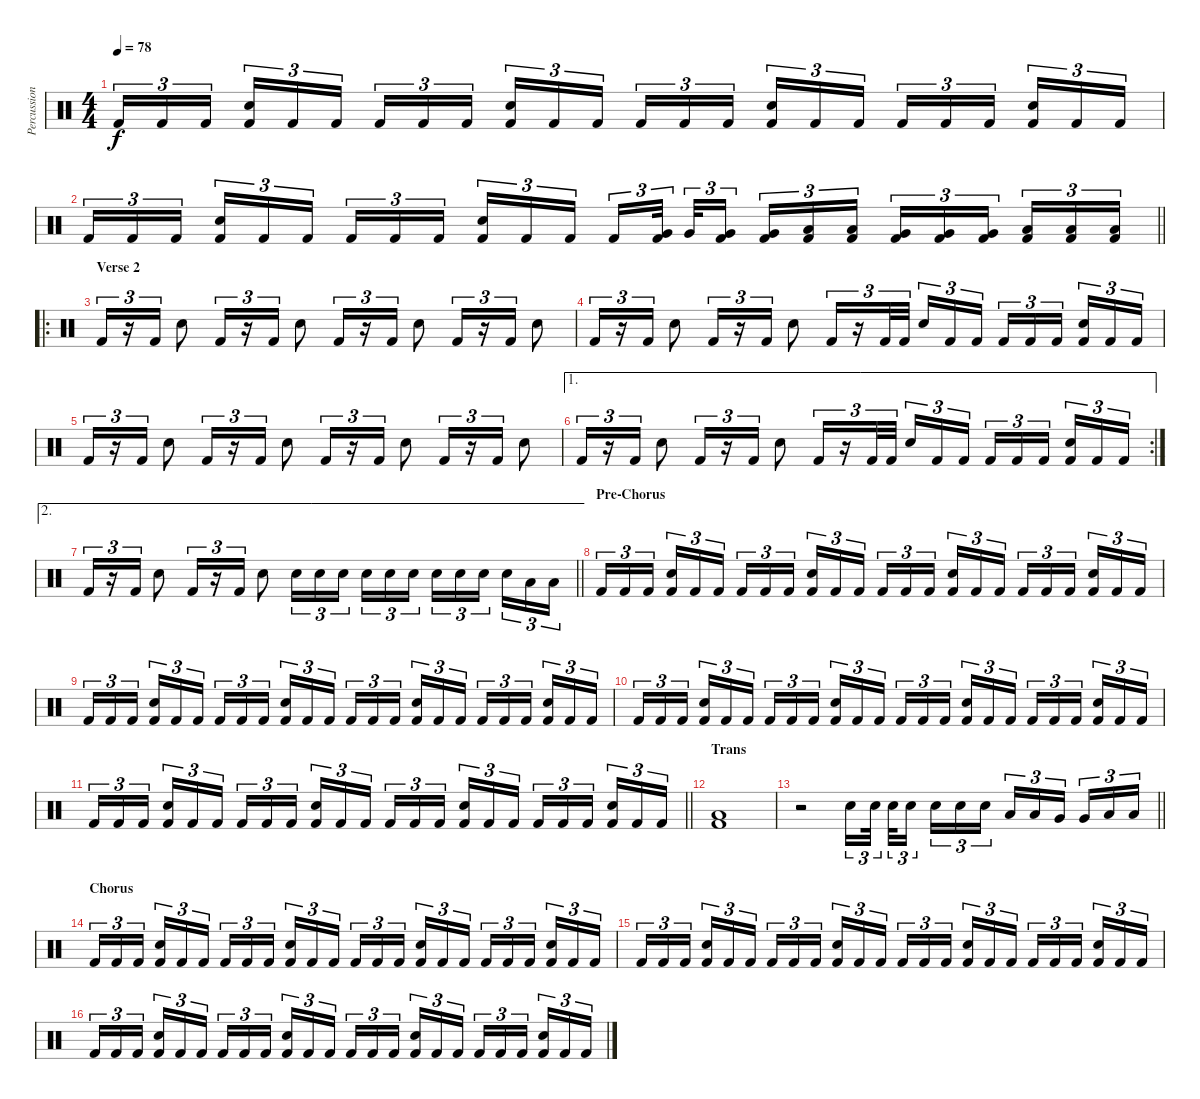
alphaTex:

\track ("Percussion" "Percussion") {instrument percussion}
\staff {score}
\articulation defaults
\ts (4 4)
\tempo 78
\clef neutral
\ks c "Kick (hit) 2".16{tu (3 2) dy f} "Kick (hit) 2".16{tu (3 2)} "Kick (hit) 2".16{tu (3 2) beam splitsecondary}
("Kick (hit) 2" "Electric Snare (hit)").16{tu (3 2)} "Kick (hit) 2".16{tu (3 2)} "Kick (hit) 2".16{tu (3 2)} "Kick (hit) 2".16{tu (3 2)} "Kick (hit) 2".16{tu (3 2)} "Kick (hit) 2".16{tu (3 2) beam splitsecondary} ("Kick (hit) 2" "Electric Snare (hit)").16{tu (3 2)} "Kick (hit) 2".16{tu (3 2)} "Kick (hit) 2".16{tu (3 2)} "Kick (hit) 2".16{tu (3 2)} "Kick (hit) 2".16{tu (3 2)} "Kick (hit) 2".16{tu (3 2) beam splitsecondary} ("Kick (hit) 2" "Electric Snare (hit)").16{tu (3 2)} "Kick (hit) 2".16{tu (3 2)} "Kick (hit) 2".16{tu (3 2)} "Kick (hit) 2".16{tu (3 2)} "Kick (hit) 2".16{tu (3 2)} "Kick (hit) 2".16{tu (3 2) beam splitsecondary} ("Kick (hit) 2" "Electric Snare (hit)").16{tu (3 2)} "Kick (hit) 2".16{tu (3 2)} "Kick (hit) 2".16{tu (3 2)} |
\barLineRight lightlight "Kick (hit) 2".16{tu (3 2)} "Kick (hit) 2".16{tu (3 2)} "Kick (hit) 2".16{tu (3 2) beam splitsecondary}
("Kick (hit) 2" "Electric Snare (hit)").16{tu (3 2)} "Kick (hit) 2".16{tu (3 2)} "Kick (hit) 2".16{tu (3 2)} "Kick (hit) 2".16{tu (3 2)} "Kick (hit) 2".16{tu (3 2)} "Kick (hit) 2".16{tu (3 2) beam splitsecondary} ("Kick (hit) 2" "Electric Snare (hit)").16{tu (3 2)} "Kick (hit) 2".16{tu (3 2)} "Kick (hit) 2".16{tu (3 2)} "Kick (hit) 2".16{tu (3 2)} ("Kick (hit) 2" "Very Low Tom (hit)").32{tu (3 2) beam splitsecondary} "Very Low Tom (hit)".32{tu (3 2)} ("Kick (hit) 2" "Very Low Tom (hit)").16{tu (3 2) beam splitsecondary} ("Kick (hit) 2" "Very Low Tom (hit)").16{tu (3 2)} ("Kick (hit) 2" "Low Tom (hit)").16{tu (3 2)} ("Kick (hit) 2" "Low Tom (hit)").16{tu (3 2)} ("Kick (hit) 2" "Very Low Tom (hit)").16{tu (3 2)} ("Kick (hit) 2" "Very Low Tom (hit)").16{tu (3 2)} ("Kick (hit) 2" "Very Low Tom (hit)").16{tu (3 2) beam splitsecondary} ("Kick (hit) 2" "Low Floor Tom (hit)").16{tu (3 2)} ("Kick (hit) 2" "Low Floor Tom (hit)").16{tu (3 2)} ("Kick (hit) 2" "Low Floor Tom (hit)").16{tu (3 2)} |
\ro
\section ("" "Verse 2")
"Kick (hit) 2".16{tu (3 2)} r.16{tu (3 2)} "Kick (hit) 2".16{tu (3 2)} "Electric Snare (hit)".8 "Kick (hit) 2".16{tu (3 2)} r.16{tu (3 2)} "Kick (hit) 2".16{tu (3 2)} "Electric Snare (hit)".8 "Kick (hit) 2".16{tu (3 2)} r.16{tu (3 2)} "Kick (hit) 2".16{tu (3 2)} "Electric Snare (hit)".8 "Kick (hit) 2".16{tu (3 2)} r.16{tu (3 2)} "Kick (hit) 2".16{tu (3 2)} "Electric Snare (hit)".8 |
"Kick (hit) 2".16{tu (3 2)} r.16{tu (3 2)} "Kick (hit) 2".16{tu (3 2)} "Electric Snare (hit)".8 "Kick (hit) 2".16{tu (3 2)} r.16{tu (3 2)} "Kick (hit) 2".16{tu (3 2)} "Electric Snare (hit)".8 "Kick (hit) 2".16{tu (3 2)} r.16{tu (3 2)} "Kick (hit) 2".32{tu (3 2)} "Kick (hit) 2".32{tu (3 2) beam splitsecondary} "Electric Snare (hit)".16{tu (3 2)} "Kick (hit) 2".16{tu (3 2)} "Kick (hit) 2".16{tu (3 2)} "Kick (hit) 2".16{tu (3 2)} "Kick (hit) 2".16{tu (3 2)} "Kick (hit) 2".16{tu (3 2) beam splitsecondary} ("Kick (hit) 2" "Electric Snare (hit)").16{tu (3 2)} "Kick (hit) 2".16{tu (3 2)} "Kick (hit) 2".16{tu (3 2)} |
"Kick (hit) 2".16{tu (3 2)} r.16{tu (3 2)} "Kick (hit) 2".16{tu (3 2)} "Electric Snare (hit)".8 "Kick (hit) 2".16{tu (3 2)} r.16{tu (3 2)} "Kick (hit) 2".16{tu (3 2)} "Electric Snare (hit)".8 "Kick (hit) 2".16{tu (3 2)} r.16{tu (3 2)} "Kick (hit) 2".16{tu (3 2)} "Electric Snare (hit)".8 "Kick (hit) 2".16{tu (3 2)} r.16{tu (3 2)} "Kick (hit) 2".16{tu (3 2)} "Electric Snare (hit)".8 |
\ae 1
\rc 2 "Kick (hit) 2".16{tu (3 2)}
r.16{tu (3 2)} "Kick (hit) 2".16{tu (3 2)} "Electric Snare (hit)".8 "Kick (hit) 2".16{tu (3 2)} r.16{tu (3 2)} "Kick (hit) 2".16{tu (3 2)} "Electric Snare (hit)".8 "Kick (hit) 2".16{tu (3 2)} r.16{tu (3 2)} "Kick (hit) 2".32{tu (3 2)} "Kick (hit) 2".32{tu (3 2) beam splitsecondary} "Electric Snare (hit)".16{tu (3 2)} "Kick (hit) 2".16{tu (3 2)} "Kick (hit) 2".16{tu (3 2)} "Kick (hit) 2".16{tu (3 2)} "Kick (hit) 2".16{tu (3 2)} "Kick (hit) 2".16{tu (3 2) beam splitsecondary} ("Kick (hit) 2" "Electric Snare (hit)").16{tu (3 2)} "Kick (hit) 2".16{tu (3 2)} "Kick (hit) 2".16{tu (3 2)} |
\ae 2
\barLineRight lightlight "Kick (hit) 2".16{tu (3 2)}
r.16{tu (3 2)} "Kick (hit) 2".16{tu (3 2)} "Electric Snare (hit)".8 "Kick (hit) 2".16{tu (3 2)} r.16{tu (3 2)} "Kick (hit) 2".16{tu (3 2)} "Electric Snare (hit)".8 "Electric Snare (hit)".16{tu (3 2)} "Electric Snare (hit)".16{tu (3 2)} "Electric Snare (hit)".16{tu (3 2) beam splitsecondary} "Electric Snare (hit)".16{tu (3 2)} "Electric Snare (hit)".16{tu (3 2)} "Electric Snare (hit)".16{tu (3 2)} "Electric Snare (hit)".16{tu (3 2)} "Electric Snare (hit)".16{tu (3 2)} "Electric Snare (hit)".16{tu (3 2) beam splitsecondary} "Electric Snare (hit)".16{tu (3 2)} "Low Floor Tom (hit)".16{tu (3 2)} "Low Floor Tom (hit)".16{tu (3 2)} |
\section ("" "Pre-Chorus")
"Kick (hit) 2".16{tu (3 2)} "Kick (hit) 2".16{tu (3 2)} "Kick (hit) 2".16{tu (3 2) beam splitsecondary} ("Kick (hit) 2" "Electric Snare (hit)").16{tu (3 2)} "Kick (hit) 2".16{tu (3 2)} "Kick (hit) 2".16{tu (3 2)} "Kick (hit) 2".16{tu (3 2)} "Kick (hit) 2".16{tu (3 2)} "Kick (hit) 2".16{tu (3 2) beam splitsecondary} ("Kick (hit) 2" "Electric Snare (hit)").16{tu (3 2)} "Kick (hit) 2".16{tu (3 2)} "Kick (hit) 2".16{tu (3 2)} "Kick (hit) 2".16{tu (3 2)} "Kick (hit) 2".16{tu (3 2)} "Kick (hit) 2".16{tu (3 2) beam splitsecondary} ("Kick (hit) 2" "Electric Snare (hit)").16{tu (3 2)} "Kick (hit) 2".16{tu (3 2)} "Kick (hit) 2".16{tu (3 2)} "Kick (hit) 2".16{tu (3 2)} "Kick (hit) 2".16{tu (3 2)} "Kick (hit) 2".16{tu (3 2) beam splitsecondary} ("Kick (hit) 2" "Electric Snare (hit)").16{tu (3 2)} "Kick (hit) 2".16{tu (3 2)} "Kick (hit) 2".16{tu (3 2)} |
"Kick (hit) 2".16{tu (3 2)} "Kick (hit) 2".16{tu (3 2)} "Kick (hit) 2".16{tu (3 2) beam splitsecondary} ("Kick (hit) 2" "Electric Snare (hit)").16{tu (3 2)} "Kick (hit) 2".16{tu (3 2)} "Kick (hit) 2".16{tu (3 2)} "Kick (hit) 2".16{tu (3 2)} "Kick (hit) 2".16{tu (3 2)} "Kick (hit) 2".16{tu (3 2) beam splitsecondary} ("Kick (hit) 2" "Electric Snare (hit)").16{tu (3 2)} "Kick (hit) 2".16{tu (3 2)} "Kick (hit) 2".16{tu (3 2)} "Kick (hit) 2".16{tu (3 2)} "Kick (hit) 2".16{tu (3 2)} "Kick (hit) 2".16{tu (3 2) beam splitsecondary} ("Kick (hit) 2" "Electric Snare (hit)").16{tu (3 2)} "Kick (hit) 2".16{tu (3 2)} "Kick (hit) 2".16{tu (3 2)} "Kick (hit) 2".16{tu (3 2)} "Kick (hit) 2".16{tu (3 2)} "Kick (hit) 2".16{tu (3 2) beam splitsecondary} ("Kick (hit) 2" "Electric Snare (hit)").16{tu (3 2)} "Kick (hit) 2".16{tu (3 2)} "Kick (hit) 2".16{tu (3 2)} |
"Kick (hit) 2".16{tu (3 2)} "Kick (hit) 2".16{tu (3 2)} "Kick (hit) 2".16{tu (3 2) beam splitsecondary} ("Kick (hit) 2" "Electric Snare (hit)").16{tu (3 2)} "Kick (hit) 2".16{tu (3 2)} "Kick (hit) 2".16{tu (3 2)} "Kick (hit) 2".16{tu (3 2)} "Kick (hit) 2".16{tu (3 2)} "Kick (hit) 2".16{tu (3 2) beam splitsecondary} ("Kick (hit) 2" "Electric Snare (hit)").16{tu (3 2)} "Kick (hit) 2".16{tu (3 2)} "Kick (hit) 2".16{tu (3 2)} "Kick (hit) 2".16{tu (3 2)} "Kick (hit) 2".16{tu (3 2)} "Kick (hit) 2".16{tu (3 2) beam splitsecondary} ("Kick (hit) 2" "Electric Snare (hit)").16{tu (3 2)} "Kick (hit) 2".16{tu (3 2)} "Kick (hit) 2".16{tu (3 2)} "Kick (hit) 2".16{tu (3 2)} "Kick (hit) 2".16{tu (3 2)} "Kick (hit) 2".16{tu (3 2) beam splitsecondary} ("Kick (hit) 2" "Electric Snare (hit)").16{tu (3 2)} "Kick (hit) 2".16{tu (3 2)} "Kick (hit) 2".16{tu (3 2)} |
\barLineRight lightlight "Kick (hit) 2".16{tu (3 2)} "Kick (hit) 2".16{tu (3 2)} "Kick (hit) 2".16{tu (3 2) beam splitsecondary}
("Kick (hit) 2" "Electric Snare (hit)").16{tu (3 2)} "Kick (hit) 2".16{tu (3 2)} "Kick (hit) 2".16{tu (3 2)} "Kick (hit) 2".16{tu (3 2)} "Kick (hit) 2".16{tu (3 2)} "Kick (hit) 2".16{tu (3 2) beam splitsecondary} ("Kick (hit) 2" "Electric Snare (hit)").16{tu (3 2)} "Kick (hit) 2".16{tu (3 2)} "Kick (hit) 2".16{tu (3 2)} "Kick (hit) 2".16{tu (3 2)} "Kick (hit) 2".16{tu (3 2)} "Kick (hit) 2".16{tu (3 2) beam splitsecondary} ("Kick (hit) 2" "Electric Snare (hit)").16{tu (3 2)} "Kick (hit) 2".16{tu (3 2)} "Kick (hit) 2".16{tu (3 2)} "Kick (hit) 2".16{tu (3 2)} "Kick (hit) 2".16{tu (3 2)} "Kick (hit) 2".16{tu (3 2) beam splitsecondary} ("Kick (hit) 2" "Electric Snare (hit)").16{tu (3 2)} "Kick (hit) 2".16{tu (3 2)} "Kick (hit) 2".16{tu (3 2)} |
\section ("" "Trans")
("Kick (hit) 2" "Low Floor Tom (hit)").1 |
\barLineRight lightlight
r.2 "Electric Snare (hit)".16{tu (3 2)} "Electric Snare (hit)".32{tu (3 2) beam splitsecondary} "Electric Snare (hit)".32{tu (3 2)} "Electric Snare (hit)".16{tu (3 2) beam splitsecondary} "Electric Snare (hit)".16{tu (3 2)} "Electric Snare (hit)".16{tu (3 2)} "Electric Snare (hit)".16{tu (3 2)} "Low Tom (hit)".16{tu (3 2)} "Low Tom (hit)".16{tu (3 2)} "Very Low Tom (hit)".16{tu (3 2) beam splitsecondary} "Very Low Tom (hit)".16{tu (3 2)} "Low Floor Tom (hit)".16{tu (3 2)} "Low Floor Tom (hit)".16{tu (3 2)} |
\section ("" "Chorus")
"Kick (hit) 2".16{tu (3 2)} "Kick (hit) 2".16{tu (3 2)} "Kick (hit) 2".16{tu (3 2) beam splitsecondary} ("Kick (hit) 2" "Electric Snare (hit)").16{tu (3 2)} "Kick (hit) 2".16{tu (3 2)} "Kick (hit) 2".16{tu (3 2)} "Kick (hit) 2".16{tu (3 2)} "Kick (hit) 2".16{tu (3 2)} "Kick (hit) 2".16{tu (3 2) beam splitsecondary} ("Kick (hit) 2" "Electric Snare (hit)").16{tu (3 2)} "Kick (hit) 2".16{tu (3 2)} "Kick (hit) 2".16{tu (3 2)} "Kick (hit) 2".16{tu (3 2)} "Kick (hit) 2".16{tu (3 2)} "Kick (hit) 2".16{tu (3 2) beam splitsecondary} ("Kick (hit) 2" "Electric Snare (hit)").16{tu (3 2)} "Kick (hit) 2".16{tu (3 2)} "Kick (hit) 2".16{tu (3 2)} "Kick (hit) 2".16{tu (3 2)} "Kick (hit) 2".16{tu (3 2)} "Kick (hit) 2".16{tu (3 2) beam splitsecondary} ("Kick (hit) 2" "Electric Snare (hit)").16{tu (3 2)} "Kick (hit) 2".16{tu (3 2)} "Kick (hit) 2".16{tu (3 2)} |
"Kick (hit) 2".16{tu (3 2)} "Kick (hit) 2".16{tu (3 2)} "Kick (hit) 2".16{tu (3 2) beam splitsecondary} ("Kick (hit) 2" "Electric Snare (hit)").16{tu (3 2)} "Kick (hit) 2".16{tu (3 2)} "Kick (hit) 2".16{tu (3 2)} "Kick (hit) 2".16{tu (3 2)} "Kick (hit) 2".16{tu (3 2)} "Kick (hit) 2".16{tu (3 2) beam splitsecondary} ("Kick (hit) 2" "Electric Snare (hit)").16{tu (3 2)} "Kick (hit) 2".16{tu (3 2)} "Kick (hit) 2".16{tu (3 2)} "Kick (hit) 2".16{tu (3 2)} "Kick (hit) 2".16{tu (3 2)} "Kick (hit) 2".16{tu (3 2) beam splitsecondary} ("Kick (hit) 2" "Electric Snare (hit)").16{tu (3 2)} "Kick (hit) 2".16{tu (3 2)} "Kick (hit) 2".16{tu (3 2)} "Kick (hit) 2".16{tu (3 2)} "Kick (hit) 2".16{tu (3 2)} "Kick (hit) 2".16{tu (3 2) beam splitsecondary} ("Kick (hit) 2" "Electric Snare (hit)").16{tu (3 2)} "Kick (hit) 2".16{tu (3 2)} "Kick (hit) 2".16{tu (3 2)} |
"Kick (hit) 2".16{tu (3 2)} "Kick (hit) 2".16{tu (3 2)} "Kick (hit) 2".16{tu (3 2) beam splitsecondary} ("Kick (hit) 2" "Electric Snare (hit)").16{tu (3 2)} "Kick (hit) 2".16{tu (3 2)} "Kick (hit) 2".16{tu (3 2)} "Kick (hit) 2".16{tu (3 2)} "Kick (hit) 2".16{tu (3 2)} "Kick (hit) 2".16{tu (3 2) beam splitsecondary} ("Kick (hit) 2" "Electric Snare (hit)").16{tu (3 2)} "Kick (hit) 2".16{tu (3 2)} "Kick (hit) 2".16{tu (3 2)} "Kick (hit) 2".16{tu (3 2)} "Kick (hit) 2".16{tu (3 2)} "Kick (hit) 2".16{tu (3 2) beam splitsecondary} ("Kick (hit) 2" "Electric Snare (hit)").16{tu (3 2)} "Kick (hit) 2".16{tu (3 2)} "Kick (hit) 2".16{tu (3 2)} "Kick (hit) 2".16{tu (3 2)} "Kick (hit) 2".16{tu (3 2)} "Kick (hit) 2".16{tu (3 2) beam splitsecondary} ("Kick (hit) 2" "Electric Snare (hit)").16{tu (3 2)} "Kick (hit) 2".16{tu (3 2)} "Kick (hit) 2".16{tu (3 2)}
